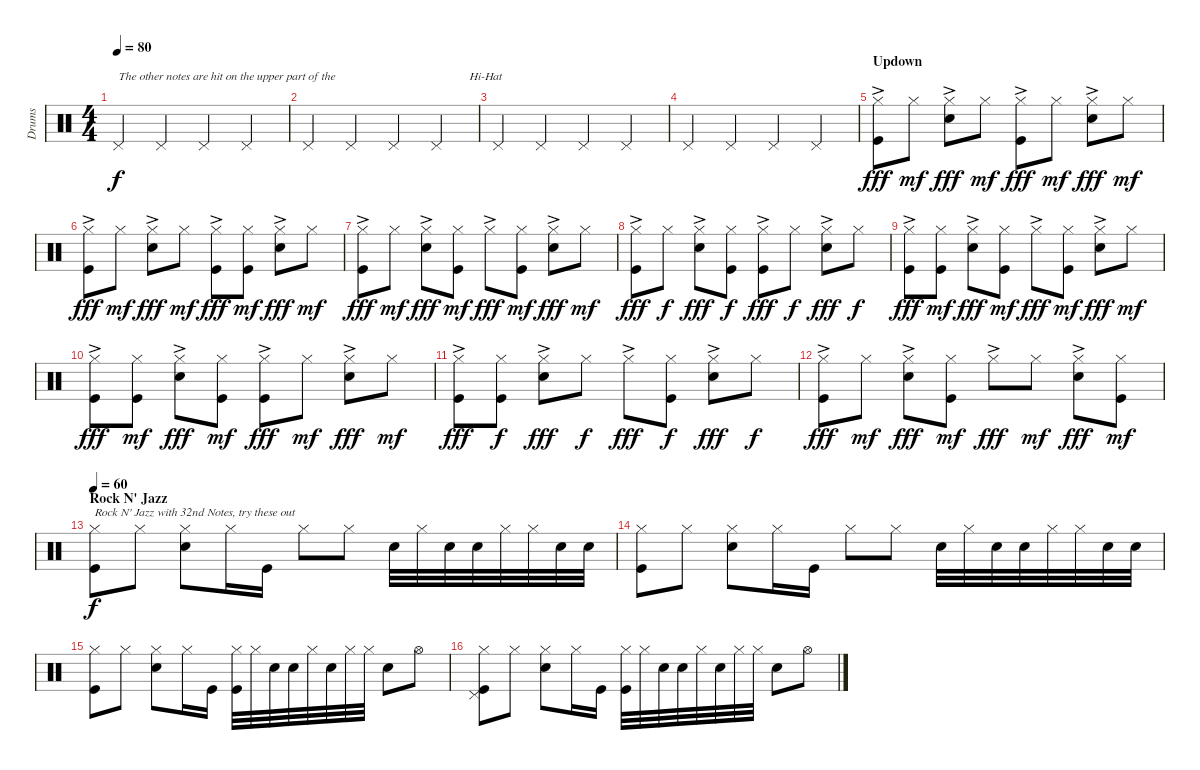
\track ("Drums" "Drums") {instrument percussion}
\staff {score}
\articulation defaults
\ts (4 4)
\tempo 80
\clef neutral
\ks c "Pedal Hi-Hat (hit)".4{txt "The other notes are hit on the upper part of the " dy f} "Pedal Hi-Hat (hit)".4 "Pedal Hi-Hat (hit)".4 "Pedal Hi-Hat (hit)".4
|
"Pedal Hi-Hat (hit)".4 "Pedal Hi-Hat (hit)".4 "Pedal Hi-Hat (hit)".4 "Pedal Hi-Hat (hit)".4{txt "           Hi-Hat"} |
"Pedal Hi-Hat (hit)".4 "Pedal Hi-Hat (hit)".4 "Pedal Hi-Hat (hit)".4 "Pedal Hi-Hat (hit)".4 |
"Pedal Hi-Hat (hit)".4 "Pedal Hi-Hat (hit)".4 "Pedal Hi-Hat (hit)".4 "Pedal Hi-Hat (hit)".4 |
\section ("" "Updown")
("Hi-Hat (closed)"{ac} "Kick (hit)").8{dy fff} "Hi-Hat (closed)".8{dy mf} ("Hi-Hat (closed)"{ac} "Electric Snare (hit)").8{dy fff} "Hi-Hat (closed)".8{dy mf} ("Hi-Hat (closed)"{ac} "Kick (hit)").8{dy fff} "Hi-Hat (closed)".8{dy mf} ("Hi-Hat (closed)"{ac} "Electric Snare (hit)").8{dy fff} "Hi-Hat (closed)".8{dy mf} |
("Hi-Hat (closed)"{ac} "Kick (hit)").8{dy fff} "Hi-Hat (closed)".8{dy mf} ("Hi-Hat (closed)"{ac} "Electric Snare (hit)").8{dy fff} "Hi-Hat (closed)".8{dy mf} ("Hi-Hat (closed)"{ac} "Kick (hit)").8{dy fff} ("Hi-Hat (closed)" "Kick (hit)").8{dy mf} ("Hi-Hat (closed)"{ac} "Electric Snare (hit)").8{dy fff} "Hi-Hat (closed)".8{dy mf} |
("Hi-Hat (closed)"{ac} "Kick (hit)").8{dy fff} "Hi-Hat (closed)".8{dy mf} ("Hi-Hat (closed)"{ac} "Electric Snare (hit)").8{dy fff} ("Hi-Hat (closed)" "Kick (hit)").8{dy mf} "Hi-Hat (closed)"{ac}.8{dy fff} ("Hi-Hat (closed)" "Kick (hit)").8{dy mf} ("Hi-Hat (closed)"{ac} "Electric Snare (hit)").8{dy fff} "Hi-Hat (closed)".8{dy mf} |
("Hi-Hat (closed)"{ac} "Kick (hit)").8{dy fff} "Hi-Hat (closed)".8{dy f} ("Hi-Hat (closed)"{ac} "Electric Snare (hit)").8{dy fff} ("Hi-Hat (closed)" "Kick (hit)").8{dy f} ("Hi-Hat (closed)"{ac} "Kick (hit)").8{dy fff} "Hi-Hat (closed)".8{dy f} ("Hi-Hat (closed)"{ac} "Electric Snare (hit)").8{dy fff} "Hi-Hat (closed)".8{dy f} |
("Hi-Hat (closed)"{ac} "Kick (hit)").8{dy fff} ("Hi-Hat (closed)" "Kick (hit)").8{dy mf} ("Hi-Hat (closed)"{ac} "Electric Snare (hit)").8{dy fff} ("Hi-Hat (closed)" "Kick (hit)").8{dy mf} "Hi-Hat (closed)"{ac}.8{dy fff} ("Hi-Hat (closed)" "Kick (hit)").8{dy mf} ("Hi-Hat (closed)"{ac} "Electric Snare (hit)").8{dy fff} "Hi-Hat (closed)".8{dy mf} |
("Hi-Hat (closed)"{ac} "Kick (hit)").8{dy fff} ("Hi-Hat (closed)" "Kick (hit)").8{dy mf} ("Hi-Hat (closed)"{ac} "Electric Snare (hit)").8{dy fff} ("Hi-Hat (closed)" "Kick (hit)").8{dy mf} ("Hi-Hat (closed)"{ac} "Kick (hit)").8{dy fff} "Hi-Hat (closed)".8{dy mf} ("Hi-Hat (closed)"{ac} "Electric Snare (hit)").8{dy fff} "Hi-Hat (closed)".8{dy mf} |
("Hi-Hat (closed)"{ac} "Kick (hit)").8{dy fff} ("Hi-Hat (closed)" "Kick (hit)").8{dy f} ("Hi-Hat (closed)"{ac} "Electric Snare (hit)").8{dy fff} "Hi-Hat (closed)".8{dy f} "Hi-Hat (closed)"{ac}.8{dy fff} ("Hi-Hat (closed)" "Kick (hit)").8{dy f} ("Hi-Hat (closed)"{ac} "Electric Snare (hit)").8{dy fff} "Hi-Hat (closed)".8{dy f} |
("Hi-Hat (closed)"{ac} "Kick (hit)").8{dy fff} "Hi-Hat (closed)".8{dy mf} ("Hi-Hat (closed)"{ac} "Electric Snare (hit)").8{dy fff} ("Hi-Hat (closed)" "Kick (hit)").8{dy mf} "Hi-Hat (closed)"{ac}.8{dy fff} "Hi-Hat (closed)".8{dy mf} ("Hi-Hat (closed)"{ac} "Electric Snare (hit)").8{dy fff} ("Hi-Hat (closed)" "Kick (hit)").8{dy mf} |
\section ("" "Rock N' Jazz")
\tempo 60
("Hi-Hat (closed)" "Kick (hit)").8{txt "Rock N' Jazz with 32nd Notes, try these out" dy f} "Hi-Hat (closed)".8 ("Hi-Hat (closed)" "Electric Snare (hit)").8 "Hi-Hat (closed)".16 "Kick (hit)".16 "Hi-Hat (closed)".8 "Hi-Hat (closed)".8 "Electric Snare (hit)".32 "Hi-Hat (closed)".32 "Electric Snare (hit)".32 "Electric Snare (hit)".32 "Hi-Hat (closed)".32 "Hi-Hat (closed)".32 "Electric Snare (hit)".32 "Electric Snare (hit)".32 |
("Hi-Hat (closed)" "Kick (hit)").8 "Hi-Hat (closed)".8 ("Hi-Hat (closed)" "Electric Snare (hit)").8 "Hi-Hat (closed)".16 "Kick (hit)".16 "Hi-Hat (closed)".8 "Hi-Hat (closed)".8 "Electric Snare (hit)".32 "Hi-Hat (closed)".32 "Electric Snare (hit)".32 "Electric Snare (hit)".32 "Hi-Hat (closed)".32 "Hi-Hat (closed)".32 "Electric Snare (hit)".32 "Electric Snare (hit)".32 |
("Hi-Hat (closed)" "Kick (hit)").8 "Hi-Hat (closed)".8 ("Hi-Hat (closed)" "Electric Snare (hit)").8 "Hi-Hat (closed)".16 "Kick (hit)".16 ("Hi-Hat (closed)" "Kick (hit)").32 "Hi-Hat (closed)".32 "Electric Snare (hit)".32 "Electric Snare (hit)".32 "Hi-Hat (closed)".32 "Electric Snare (hit)".32 "Hi-Hat (closed)".32 "Hi-Hat (closed)".32 "Electric Snare (hit)".8 "Hi-Hat (open)".8 |
("Hi-Hat (closed)" "Pedal Hi-Hat (hit)" "Kick (hit)").8 "Hi-Hat (closed)".8 ("Hi-Hat (closed)" "Electric Snare (hit)").8 "Hi-Hat (closed)".16 "Kick (hit)".16 ("Hi-Hat (closed)" "Kick (hit)").32 "Hi-Hat (closed)".32 "Electric Snare (hit)".32 "Electric Snare (hit)".32 "Hi-Hat (closed)".32 "Electric Snare (hit)".32 "Hi-Hat (closed)".32 "Hi-Hat (closed)".32 "Electric Snare (hit)".8 "Hi-Hat (open)".8
